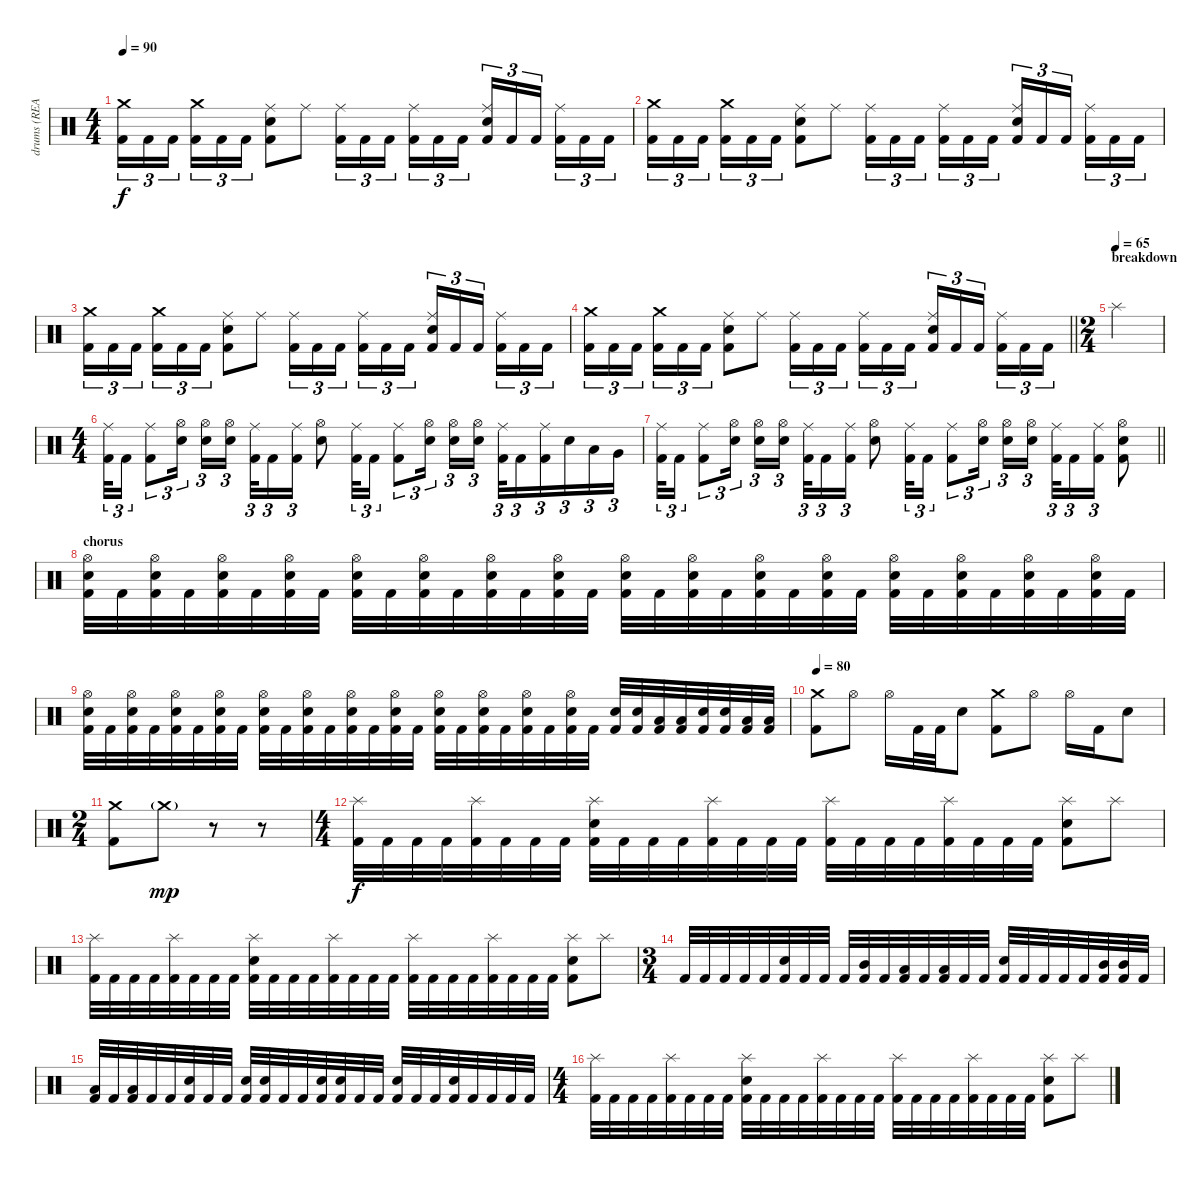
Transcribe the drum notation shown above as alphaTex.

\track ("drums (REAL simple)" "drums (REA") {instrument percussion}
\staff {score}
\articulation defaults
\ts (4 4)
\tempo 90
\clef neutral
\ks c
("Crash medium (hit)" "Kick (hit) 2").16{tu (3 2) dy f} "Kick (hit) 2".16{tu (3 2)} "Kick (hit) 2".16{tu (3 2) beam splitsecondary} ("Crash medium (hit)" "Kick (hit) 2").16{tu (3 2)} "Kick (hit) 2".16{tu (3 2)} "Kick (hit) 2".16{tu (3 2)} ("Ride (middle)" "Electric Snare (hit)" "Kick (hit) 2").8 "Ride (middle)".8 ("Ride (middle)" "Kick (hit) 2").16{tu (3 2)} "Kick (hit) 2".16{tu (3 2)} "Kick (hit) 2".16{tu (3 2) beam splitsecondary} ("Ride (middle)" "Kick (hit) 2").16{tu (3 2)} "Kick (hit) 2".16{tu (3 2)} "Kick (hit) 2".16{tu (3 2)} ("Ride (middle)" "Electric Snare (hit)" "Kick (hit) 2").16{tu (3 2)} "Kick (hit) 2".16{tu (3 2)} "Kick (hit) 2".16{tu (3 2) beam splitsecondary} ("Ride (middle)" "Kick (hit) 2").16{tu (3 2)} "Kick (hit) 2".16{tu (3 2)} "Kick (hit) 2".16{tu (3 2)} |
("Crash medium (hit)" "Kick (hit) 2").16{tu (3 2)} "Kick (hit) 2".16{tu (3 2)} "Kick (hit) 2".16{tu (3 2) beam splitsecondary} ("Crash medium (hit)" "Kick (hit) 2").16{tu (3 2)} "Kick (hit) 2".16{tu (3 2)} "Kick (hit) 2".16{tu (3 2)} ("Ride (middle)" "Electric Snare (hit)" "Kick (hit) 2").8 "Ride (middle)".8 ("Ride (middle)" "Kick (hit) 2").16{tu (3 2)} "Kick (hit) 2".16{tu (3 2)} "Kick (hit) 2".16{tu (3 2) beam splitsecondary} ("Ride (middle)" "Kick (hit) 2").16{tu (3 2)} "Kick (hit) 2".16{tu (3 2)} "Kick (hit) 2".16{tu (3 2)} ("Ride (middle)" "Electric Snare (hit)" "Kick (hit) 2").16{tu (3 2)} "Kick (hit) 2".16{tu (3 2)} "Kick (hit) 2".16{tu (3 2) beam splitsecondary} ("Ride (middle)" "Kick (hit) 2").16{tu (3 2)} "Kick (hit) 2".16{tu (3 2)} "Kick (hit) 2".16{tu (3 2)} |
("Crash medium (hit)" "Kick (hit) 2").16{tu (3 2)} "Kick (hit) 2".16{tu (3 2)} "Kick (hit) 2".16{tu (3 2) beam splitsecondary} ("Crash medium (hit)" "Kick (hit) 2").16{tu (3 2)} "Kick (hit) 2".16{tu (3 2)} "Kick (hit) 2".16{tu (3 2)} ("Ride (middle)" "Electric Snare (hit)" "Kick (hit) 2").8 "Ride (middle)".8 ("Ride (middle)" "Kick (hit) 2").16{tu (3 2)} "Kick (hit) 2".16{tu (3 2)} "Kick (hit) 2".16{tu (3 2) beam splitsecondary} ("Ride (middle)" "Kick (hit) 2").16{tu (3 2)} "Kick (hit) 2".16{tu (3 2)} "Kick (hit) 2".16{tu (3 2)} ("Ride (middle)" "Electric Snare (hit)" "Kick (hit) 2").16{tu (3 2)} "Kick (hit) 2".16{tu (3 2)} "Kick (hit) 2".16{tu (3 2) beam splitsecondary} ("Ride (middle)" "Kick (hit) 2").16{tu (3 2)} "Kick (hit) 2".16{tu (3 2)} "Kick (hit) 2".16{tu (3 2)} |
\barLineRight lightlight
("Crash medium (hit)" "Kick (hit) 2").16{tu (3 2)} "Kick (hit) 2".16{tu (3 2)} "Kick (hit) 2".16{tu (3 2) beam splitsecondary} ("Crash medium (hit)" "Kick (hit) 2").16{tu (3 2)} "Kick (hit) 2".16{tu (3 2)} "Kick (hit) 2".16{tu (3 2)} ("Ride (middle)" "Electric Snare (hit)" "Kick (hit) 2").8 "Ride (middle)".8 ("Ride (middle)" "Kick (hit) 2").16{tu (3 2)} "Kick (hit) 2".16{tu (3 2)} "Kick (hit) 2".16{tu (3 2) beam splitsecondary} ("Ride (middle)" "Kick (hit) 2").16{tu (3 2)} "Kick (hit) 2".16{tu (3 2)} "Kick (hit) 2".16{tu (3 2)} ("Ride (middle)" "Electric Snare (hit)" "Kick (hit) 2").16{tu (3 2)} "Kick (hit) 2".16{tu (3 2)} "Kick (hit) 2".16{tu (3 2) beam splitsecondary} ("Ride (middle)" "Kick (hit) 2").16{tu (3 2)} "Kick (hit) 2".16{tu (3 2)} "Kick (hit) 2".16{tu (3 2)} |
\ts (2 4)
\section ("" "breakdown")
\tempo (65)
"Splash (hit)".2 |
\ts (4 4)
("Ride (middle)" "Kick (hit) 2").32{tu (3 2)} "Kick (hit) 2".16{tu (3 2)} ("Ride (middle)" "Kick (hit) 2").8{tu (3 2)} ("Hi-Hat (open)" "Electric Snare (hit)").16{tu (3 2) beam splitsecondary} ("Hi-Hat (open)" "Electric Snare (hit)").16{tu (3 2)} ("Hi-Hat (open)" "Electric Snare (hit)").16{tu (3 2)} ("Ride (middle)" "Kick (hit) 2").32{tu (3 2)} "Kick (hit) 2".16{tu (3 2)} ("Ride (middle)" "Kick (hit) 2").16{tu (3 2)} ("Hi-Hat (open)" "Electric Snare (hit)").8 ("Ride (middle)" "Kick (hit) 2").32{tu (3 2)} "Kick (hit) 2".16{tu (3 2)} ("Ride (middle)" "Kick (hit) 2").8{tu (3 2)} ("Hi-Hat (open)" "Electric Snare (hit)").16{tu (3 2) beam splitsecondary} ("Hi-Hat (open)" "Electric Snare (hit)").16{tu (3 2)} ("Hi-Hat (open)" "Electric Snare (hit)").16{tu (3 2)} ("Ride (middle)" "Kick (hit) 2").32{tu (3 2)} "Kick (hit) 2".16{tu (3 2)} ("Ride (middle)" "Kick (hit) 2").16{tu (3 2)} "Electric Snare (hit)".16{tu (3 2)} "Low Tom (hit)".16{tu (3 2)} "Very Low Tom (hit)".16{tu (3 2)} |
\barLineRight lightlight
("Ride (middle)" "Kick (hit) 2").32{tu (3 2)} "Kick (hit) 2".16{tu (3 2)} ("Ride (middle)" "Kick (hit) 2").8{tu (3 2)} ("Hi-Hat (open)" "Electric Snare (hit)").16{tu (3 2) beam splitsecondary} ("Hi-Hat (open)" "Electric Snare (hit)").16{tu (3 2)} ("Hi-Hat (open)" "Electric Snare (hit)").16{tu (3 2)} ("Ride (middle)" "Kick (hit) 2").32{tu (3 2)} "Kick (hit) 2".16{tu (3 2)} ("Ride (middle)" "Kick (hit) 2").16{tu (3 2)} ("Hi-Hat (open)" "Electric Snare (hit)").8 ("Ride (middle)" "Kick (hit) 2").32{tu (3 2)} "Kick (hit) 2".16{tu (3 2)} ("Ride (middle)" "Kick (hit) 2").8{tu (3 2)} ("Hi-Hat (open)" "Electric Snare (hit)").16{tu (3 2) beam splitsecondary} ("Hi-Hat (open)" "Electric Snare (hit)").16{tu (3 2)} ("Hi-Hat (open)" "Electric Snare (hit)").16{tu (3 2)} ("Ride (middle)" "Kick (hit) 2").32{tu (3 2)} "Kick (hit) 2".16{tu (3 2)} ("Ride (middle)" "Kick (hit) 2").16{tu (3 2)} ("Hi-Hat (open)" "Electric Snare (hit)" "Kick (hit) 2").8 |
\section ("" "chorus")
("Hi-Hat (open)" "Electric Snare (hit)" "Kick (hit) 2").32 "Kick (hit) 2".32 ("Hi-Hat (open)" "Electric Snare (hit)" "Kick (hit) 2").32 "Kick (hit) 2".32 ("Hi-Hat (open)" "Electric Snare (hit)" "Kick (hit) 2").32 "Kick (hit) 2".32 ("Hi-Hat (open)" "Electric Snare (hit)" "Kick (hit) 2").32 "Kick (hit) 2".32 ("Hi-Hat (open)" "Electric Snare (hit)" "Kick (hit) 2").32 "Kick (hit) 2".32 ("Hi-Hat (open)" "Electric Snare (hit)" "Kick (hit) 2").32 "Kick (hit) 2".32 ("Hi-Hat (open)" "Electric Snare (hit)" "Kick (hit) 2").32 "Kick (hit) 2".32 ("Hi-Hat (open)" "Electric Snare (hit)" "Kick (hit) 2").32 "Kick (hit) 2".32 ("Hi-Hat (open)" "Electric Snare (hit)" "Kick (hit) 2").32 "Kick (hit) 2".32 ("Hi-Hat (open)" "Electric Snare (hit)" "Kick (hit) 2").32 "Kick (hit) 2".32 ("Hi-Hat (open)" "Electric Snare (hit)" "Kick (hit) 2").32 "Kick (hit) 2".32 ("Hi-Hat (open)" "Electric Snare (hit)" "Kick (hit) 2").32 "Kick (hit) 2".32 ("Hi-Hat (open)" "Electric Snare (hit)" "Kick (hit) 2").32 "Kick (hit) 2".32 ("Hi-Hat (open)" "Electric Snare (hit)" "Kick (hit) 2").32 "Kick (hit) 2".32 ("Hi-Hat (open)" "Electric Snare (hit)" "Kick (hit) 2").32 "Kick (hit) 2".32 ("Hi-Hat (open)" "Electric Snare (hit)" "Kick (hit) 2").32 "Kick (hit) 2".32 |
("Hi-Hat (open)" "Electric Snare (hit)" "Kick (hit) 2").32 "Kick (hit) 2".32 ("Hi-Hat (open)" "Electric Snare (hit)" "Kick (hit) 2").32 "Kick (hit) 2".32 ("Hi-Hat (open)" "Electric Snare (hit)" "Kick (hit) 2").32 "Kick (hit) 2".32 ("Hi-Hat (open)" "Electric Snare (hit)" "Kick (hit) 2").32 "Kick (hit) 2".32 ("Hi-Hat (open)" "Electric Snare (hit)" "Kick (hit) 2").32 "Kick (hit) 2".32 ("Hi-Hat (open)" "Electric Snare (hit)" "Kick (hit) 2").32 "Kick (hit) 2".32 ("Hi-Hat (open)" "Electric Snare (hit)" "Kick (hit) 2").32 "Kick (hit) 2".32 ("Hi-Hat (open)" "Electric Snare (hit)" "Kick (hit) 2").32 "Kick (hit) 2".32 ("Hi-Hat (open)" "Electric Snare (hit)" "Kick (hit) 2").32 "Kick (hit) 2".32 ("Hi-Hat (open)" "Electric Snare (hit)" "Kick (hit) 2").32 "Kick (hit) 2".32 ("Hi-Hat (open)" "Electric Snare (hit)" "Kick (hit) 2").32 "Kick (hit) 2".32 ("Hi-Hat (open)" "Electric Snare (hit)" "Kick (hit) 2").32 "Kick (hit) 2".32 ("Electric Snare (hit)" "Kick (hit) 2").32 ("Electric Snare (hit)" "Kick (hit) 2").32 ("Low Tom (hit)" "Kick (hit) 2").32 ("Low Tom (hit)" "Kick (hit) 2").32 ("Electric Snare (hit)" "Kick (hit) 2").32 ("Electric Snare (hit)" "Kick (hit) 2").32 ("Low Tom (hit)" "Kick (hit) 2").32 ("Low Tom (hit)" "Kick (hit) 2").32 |
\tempo 80
("Crash medium (hit)" "Kick (hit) 2").8 "Hi-Hat (open)".8 "Hi-Hat (open)".16 "Kick (hit) 2".32 "Kick (hit) 2".32 "Electric Snare (hit)".8 ("Crash medium (hit)" "Kick (hit) 2").8 "Hi-Hat (open)".8 "Hi-Hat (open)".16 "Kick (hit) 2".16 "Electric Snare (hit)".8 |
\ts (2 4)
("Crash medium (hit)" "Kick (hit) 2").8 "Crash medium (hit)"{g}.8{dy mp} r.8 r.8 |
\ts (4 4)
("Splash (hit)" "Kick (hit) 2").32{dy f} "Kick (hit) 2".32 "Kick (hit) 2".32 "Kick (hit) 2".32 ("Splash (hit)" "Kick (hit) 2").32 "Kick (hit) 2".32 "Kick (hit) 2".32 "Kick (hit) 2".32 ("Splash (hit)" "Electric Snare (hit)" "Kick (hit) 2").32 "Kick (hit) 2".32 "Kick (hit) 2".32 "Kick (hit) 2".32 ("Splash (hit)" "Kick (hit) 2").32 "Kick (hit) 2".32 "Kick (hit) 2".32 "Kick (hit) 2".32 ("Splash (hit)" "Kick (hit) 2").32 "Kick (hit) 2".32 "Kick (hit) 2".32 "Kick (hit) 2".32 ("Splash (hit)" "Kick (hit) 2").32 "Kick (hit) 2".32 "Kick (hit) 2".32 "Kick (hit) 2".32 ("Splash (hit)" "Electric Snare (hit)" "Kick (hit) 2").8 "Splash (hit)".8 |
("Splash (hit)" "Kick (hit) 2").32 "Kick (hit) 2".32 "Kick (hit) 2".32 "Kick (hit) 2".32 ("Splash (hit)" "Kick (hit) 2").32 "Kick (hit) 2".32 "Kick (hit) 2".32 "Kick (hit) 2".32 ("Splash (hit)" "Electric Snare (hit)" "Kick (hit) 2").32 "Kick (hit) 2".32 "Kick (hit) 2".32 "Kick (hit) 2".32 ("Splash (hit)" "Kick (hit) 2").32 "Kick (hit) 2".32 "Kick (hit) 2".32 "Kick (hit) 2".32 ("Splash (hit)" "Kick (hit) 2").32 "Kick (hit) 2".32 "Kick (hit) 2".32 "Kick (hit) 2".32 ("Splash (hit)" "Kick (hit) 2").32 "Kick (hit) 2".32 "Kick (hit) 2".32 "Kick (hit) 2".32 ("Splash (hit)" "Electric Snare (hit)" "Kick (hit) 2").8 "Splash (hit)".8 |
\ts (3 4)
"Kick (hit) 2".32 "Kick (hit) 2".32 "Kick (hit) 2".32 "Kick (hit) 2".32 "Kick (hit) 2".32 ("Electric Snare (hit)" "Kick (hit) 2").32 "Kick (hit) 2".32 "Kick (hit) 2".32 "Kick (hit) 2".32 ("Mid Tom (hit)" "Kick (hit) 2").32 "Kick (hit) 2".32 ("Low Tom (hit)" "Kick (hit) 2").32 "Kick (hit) 2".32 ("Low Tom (hit)" "Kick (hit) 2").32 "Kick (hit) 2".32 "Kick (hit) 2".32 ("Electric Snare (hit)" "Kick (hit) 2").32 "Kick (hit) 2".32 "Kick (hit) 2".32 "Kick (hit) 2".32 "Kick (hit) 2".32 ("Mid Tom (hit)" "Kick (hit) 2").32 ("Mid Tom (hit)" "Kick (hit) 2").32 "Kick (hit) 2".32 |
("Low Tom (hit)" "Kick (hit) 2").32 "Kick (hit) 2".32 ("Low Tom (hit)" "Kick (hit) 2").32 "Kick (hit) 2".32 "Kick (hit) 2".32 ("Electric Snare (hit)" "Kick (hit) 2").32 "Kick (hit) 2".32 "Kick (hit) 2".32 ("Electric Snare (hit)" "Kick (hit) 2").32 ("Electric Snare (hit)" "Kick (hit) 2").32 "Kick (hit) 2".32 "Kick (hit) 2".32 ("Electric Snare (hit)" "Kick (hit) 2").32 ("Electric Snare (hit)" "Kick (hit) 2").32 "Kick (hit) 2".32 "Kick (hit) 2".32 ("Electric Snare (hit)" "Kick (hit) 2").32 "Kick (hit) 2".32 "Kick (hit) 2".32 ("Electric Snare (hit)" "Kick (hit) 2").32 "Kick (hit) 2".32 "Kick (hit) 2".32 "Kick (hit) 2".32 "Kick (hit) 2".32 |
\ts (4 4)
("Splash (hit)" "Kick (hit) 2").32 "Kick (hit) 2".32 "Kick (hit) 2".32 "Kick (hit) 2".32 ("Splash (hit)" "Kick (hit) 2").32 "Kick (hit) 2".32 "Kick (hit) 2".32 "Kick (hit) 2".32 ("Splash (hit)" "Electric Snare (hit)" "Kick (hit) 2").32 "Kick (hit) 2".32 "Kick (hit) 2".32 "Kick (hit) 2".32 ("Splash (hit)" "Kick (hit) 2").32 "Kick (hit) 2".32 "Kick (hit) 2".32 "Kick (hit) 2".32 ("Splash (hit)" "Kick (hit) 2").32 "Kick (hit) 2".32 "Kick (hit) 2".32 "Kick (hit) 2".32 ("Splash (hit)" "Kick (hit) 2").32 "Kick (hit) 2".32 "Kick (hit) 2".32 "Kick (hit) 2".32 ("Splash (hit)" "Electric Snare (hit)" "Kick (hit) 2").8 "Splash (hit)".8
